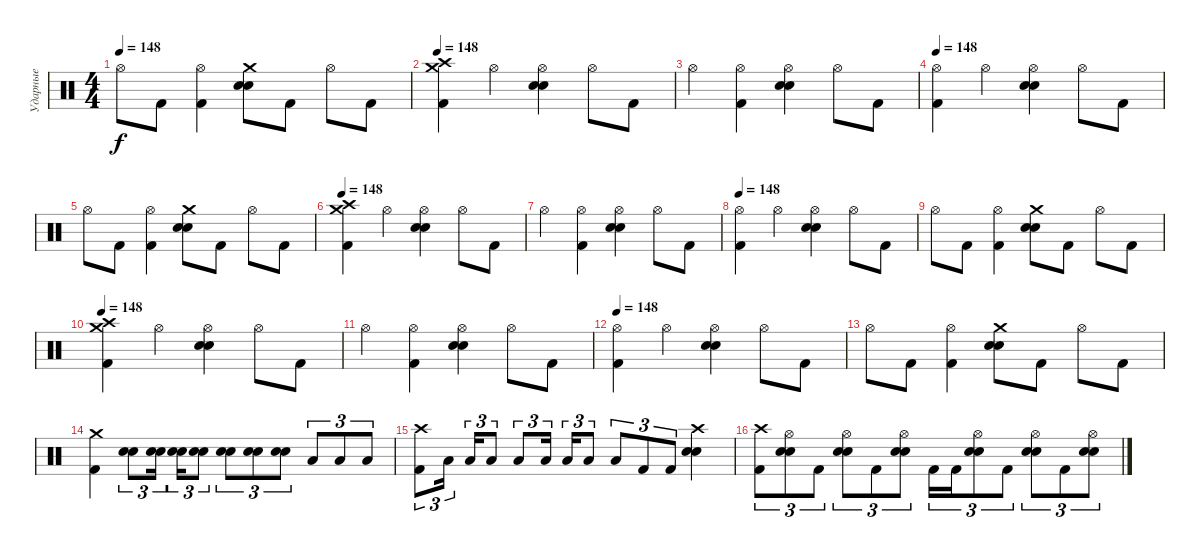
\track ("Ударные" "Ударные") {instrument percussion}
\staff {score}
\articulation defaults
\ts (4 4)
\tempo 148
\clef neutral
\ks c "Hi-Hat (open)".8{dy f} "Kick (hit) 2".8
("Hi-Hat (open)" "Kick (hit) 2").4 ("Crash medium (hit)" "Snare (hit) 2" "Electric Snare (hit)").8 "Kick (hit) 2".8 "Hi-Hat (open)".8 "Kick (hit) 2".8 |
\tempo 148
("Crash high (hit)" "Crash medium (hit)" "Kick (hit) 2").4 "Hi-Hat (open)".4 ("Hi-Hat (open)" "Snare (hit) 2" "Electric Snare (hit)").4 "Hi-Hat (open)".8 "Kick (hit) 2".8 |
"Hi-Hat (open)".4 ("Hi-Hat (open)" "Kick (hit) 2").4 ("Hi-Hat (open)" "Snare (hit) 2" "Electric Snare (hit)").4 "Hi-Hat (open)".8 "Kick (hit) 2".8 |
\tempo 148
("Hi-Hat (open)" "Kick (hit) 2").4 "Hi-Hat (open)".4 ("Hi-Hat (open)" "Snare (hit) 2" "Electric Snare (hit)").4 "Hi-Hat (open)".8 "Kick (hit) 2".8 |
"Hi-Hat (open)".8 "Kick (hit) 2".8 ("Hi-Hat (open)" "Kick (hit) 2").4 ("Crash medium (hit)" "Snare (hit) 2" "Electric Snare (hit)").8 "Kick (hit) 2".8 "Hi-Hat (open)".8 "Kick (hit) 2".8 |
\tempo 148
("Crash high (hit)" "Crash medium (hit)" "Kick (hit) 2").4 "Hi-Hat (open)".4 ("Hi-Hat (open)" "Snare (hit) 2" "Electric Snare (hit)").4 "Hi-Hat (open)".8 "Kick (hit) 2".8 |
"Hi-Hat (open)".4 ("Hi-Hat (open)" "Kick (hit) 2").4 ("Hi-Hat (open)" "Snare (hit) 2" "Electric Snare (hit)").4 "Hi-Hat (open)".8 "Kick (hit) 2".8 |
\tempo 148
("Hi-Hat (open)" "Kick (hit) 2").4 "Hi-Hat (open)".4 ("Hi-Hat (open)" "Snare (hit) 2" "Electric Snare (hit)").4 "Hi-Hat (open)".8 "Kick (hit) 2".8 |
"Hi-Hat (open)".8 "Kick (hit) 2".8 ("Hi-Hat (open)" "Kick (hit) 2").4 ("Crash medium (hit)" "Snare (hit) 2" "Electric Snare (hit)").8 "Kick (hit) 2".8 "Hi-Hat (open)".8 "Kick (hit) 2".8 |
\tempo 148
("Crash high (hit)" "Crash medium (hit)" "Kick (hit) 2").4 "Hi-Hat (open)".4 ("Hi-Hat (open)" "Snare (hit) 2" "Electric Snare (hit)").4 "Hi-Hat (open)".8 "Kick (hit) 2".8 |
"Hi-Hat (open)".4 ("Hi-Hat (open)" "Kick (hit) 2").4 ("Hi-Hat (open)" "Snare (hit) 2" "Electric Snare (hit)").4 "Hi-Hat (open)".8 "Kick (hit) 2".8 |
\tempo 148
("Hi-Hat (open)" "Kick (hit) 2").4 "Hi-Hat (open)".4 ("Hi-Hat (open)" "Snare (hit) 2" "Electric Snare (hit)").4 "Hi-Hat (open)".8 "Kick (hit) 2".8 |
"Hi-Hat (open)".8 "Kick (hit) 2".8 ("Hi-Hat (open)" "Kick (hit) 2").4 ("Crash medium (hit)" "Snare (hit) 2" "Electric Snare (hit)").8 "Kick (hit) 2".8 "Hi-Hat (open)".8 "Kick (hit) 2".8 |
("Crash medium (hit)" "Kick (hit) 2").4 ("Electric Snare (hit)" "Snare (hit) 2").8{tu (3 2)} ("Electric Snare (hit)" "Snare (hit) 2").16{tu (3 2) beam splitsecondary} ("Electric Snare (hit)" "Snare (hit) 2").16{tu (3 2)} ("Electric Snare (hit)" "Snare (hit) 2").8{tu (3 2)} ("Electric Snare (hit)" "Snare (hit) 2").8{tu (3 2)} ("Electric Snare (hit)" "Snare (hit) 2").8{tu (3 2)} ("Electric Snare (hit)" "Snare (hit) 2").8{tu (3 2)} "Low Tom (hit)".8{tu (3 2)} "Low Tom (hit)".8{tu (3 2)} "Low Tom (hit)".8{tu (3 2)} |
("Crash high (hit)" "Kick (hit) 2").8{tu (3 2)} "Low Floor Tom (hit)".16{tu (3 2) beam splitsecondary} "Low Floor Tom (hit)".16{tu (3 2)} "Low Floor Tom (hit)".8{tu (3 2)} "Low Floor Tom (hit)".8{tu (3 2)} "Low Tom (hit)".16{tu (3 2) beam splitsecondary} "Low Tom (hit)".16{tu (3 2)} "Low Tom (hit)".8{tu (3 2)} "Low Tom (hit)".8{tu (3 2)} "Kick (hit) 2".8{tu (3 2)} "Kick (hit) 2".8{tu (3 2)} ("Crash high (hit)" "Electric Snare (hit)" "Snare (hit) 2").4 |
("Crash high (hit)" "Kick (hit) 2").8{tu (3 2)} ("Hi-Hat (open)" "Snare (hit) 2" "Electric Snare (hit)").8{tu (3 2)} "Kick (hit) 2".8{tu (3 2)} ("Hi-Hat (open)" "Snare (hit) 2" "Electric Snare (hit)").8{tu (3 2)} "Kick (hit) 2".8{tu (3 2)} ("Hi-Hat (open)" "Snare (hit) 2" "Electric Snare (hit)").8{tu (3 2)} "Kick (hit) 2".16{tu (3 2)} "Kick (hit) 2".16{tu (3 2)} ("Hi-Hat (open)" "Snare (hit) 2" "Electric Snare (hit)").8{tu (3 2)} "Kick (hit) 2".8{tu (3 2)} ("Hi-Hat (open)" "Snare (hit) 2" "Electric Snare (hit)").8{tu (3 2)} "Kick (hit) 2".8{tu (3 2)} ("Hi-Hat (open)" "Snare (hit) 2" "Electric Snare (hit)").8{tu (3 2)}
